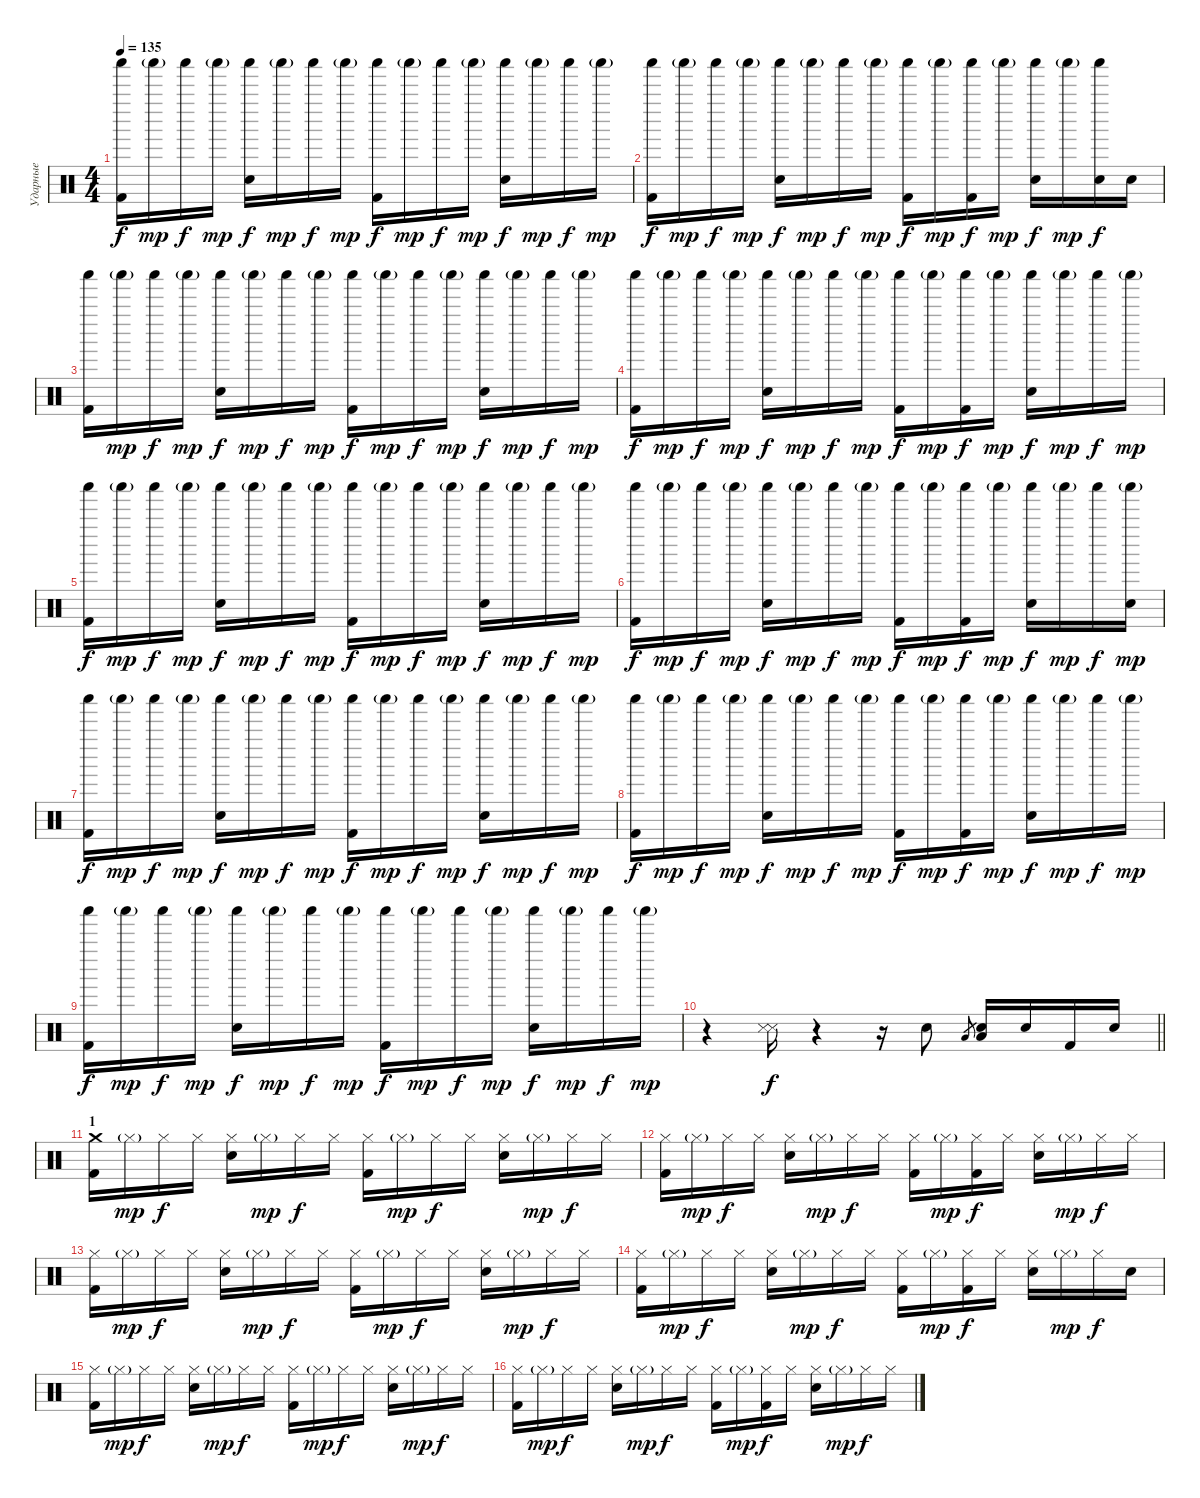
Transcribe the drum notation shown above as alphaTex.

\track ("Ударные" "Ударные") {instrument percussion}
\staff {score}
\articulation defaults
\ts (4 4)
\tempo 135
\clef neutral
\ks c
("Shaker (hit)" "Kick (hit) 2").16{dy f} "Shaker (hit)"{g}.16{dy mp} "Shaker (hit)".16{dy f} "Shaker (hit)"{g}.16{dy mp} ("Shaker (hit)" "Snare (hit) 2").16{dy f} "Shaker (hit)"{g}.16{dy mp} "Shaker (hit)".16{dy f} "Shaker (hit)"{g}.16{dy mp} ("Shaker (hit)" "Kick (hit) 2").16{dy f} "Shaker (hit)"{g}.16{dy mp} "Shaker (hit)".16{dy f} "Shaker (hit)"{g}.16{dy mp} ("Shaker (hit)" "Snare (hit) 2").16{dy f} "Shaker (hit)"{g}.16{dy mp} "Shaker (hit)".16{dy f} "Shaker (hit)"{g}.16{dy mp} |
("Shaker (hit)" "Kick (hit) 2").16{dy f} "Shaker (hit)"{g}.16{dy mp} "Shaker (hit)".16{dy f} "Shaker (hit)"{g}.16{dy mp} ("Shaker (hit)" "Snare (hit) 2").16{dy f} "Shaker (hit)"{g}.16{dy mp} "Shaker (hit)".16{dy f} "Shaker (hit)"{g}.16{dy mp} ("Shaker (hit)" "Kick (hit) 2").16{dy f} "Shaker (hit)"{g}.16{dy mp} ("Shaker (hit)" "Kick (hit) 2").16{dy f} "Shaker (hit)"{g}.16{dy mp} ("Shaker (hit)" "Snare (hit) 2").16{dy f} "Shaker (hit)"{g}.16{dy mp} ("Shaker (hit)" "Snare (hit) 2").16{dy f} "Snare (hit) 2".16 |
("Shaker (hit)" "Kick (hit) 2").16 "Shaker (hit)"{g}.16{dy mp} "Shaker (hit)".16{dy f} "Shaker (hit)"{g}.16{dy mp} ("Shaker (hit)" "Snare (hit) 2").16{dy f} "Shaker (hit)"{g}.16{dy mp} "Shaker (hit)".16{dy f} "Shaker (hit)"{g}.16{dy mp} ("Shaker (hit)" "Kick (hit) 2").16{dy f} "Shaker (hit)"{g}.16{dy mp} "Shaker (hit)".16{dy f} "Shaker (hit)"{g}.16{dy mp} ("Shaker (hit)" "Snare (hit) 2").16{dy f} "Shaker (hit)"{g}.16{dy mp} "Shaker (hit)".16{dy f} "Shaker (hit)"{g}.16{dy mp} |
("Shaker (hit)" "Kick (hit) 2").16{dy f} "Shaker (hit)"{g}.16{dy mp} "Shaker (hit)".16{dy f} "Shaker (hit)"{g}.16{dy mp} ("Shaker (hit)" "Snare (hit) 2").16{dy f} "Shaker (hit)"{g}.16{dy mp} "Shaker (hit)".16{dy f} "Shaker (hit)"{g}.16{dy mp} ("Shaker (hit)" "Kick (hit) 2").16{dy f} "Shaker (hit)"{g}.16{dy mp} ("Shaker (hit)" "Kick (hit) 2").16{dy f} "Shaker (hit)"{g}.16{dy mp} ("Shaker (hit)" "Snare (hit) 2").16{dy f} "Shaker (hit)"{g}.16{dy mp} "Shaker (hit)".16{dy f} "Shaker (hit)"{g}.16{dy mp} |
("Shaker (hit)" "Kick (hit) 2").16{dy f} "Shaker (hit)"{g}.16{dy mp} "Shaker (hit)".16{dy f} "Shaker (hit)"{g}.16{dy mp} ("Shaker (hit)" "Snare (hit) 2").16{dy f} "Shaker (hit)"{g}.16{dy mp} "Shaker (hit)".16{dy f} "Shaker (hit)"{g}.16{dy mp} ("Shaker (hit)" "Kick (hit) 2").16{dy f} "Shaker (hit)"{g}.16{dy mp} "Shaker (hit)".16{dy f} "Shaker (hit)"{g}.16{dy mp} ("Shaker (hit)" "Snare (hit) 2").16{dy f} "Shaker (hit)"{g}.16{dy mp} "Shaker (hit)".16{dy f} "Shaker (hit)"{g}.16{dy mp} |
("Shaker (hit)" "Kick (hit) 2").16{dy f} "Shaker (hit)"{g}.16{dy mp} "Shaker (hit)".16{dy f} "Shaker (hit)"{g}.16{dy mp} ("Shaker (hit)" "Snare (hit) 2").16{dy f} "Shaker (hit)"{g}.16{dy mp} "Shaker (hit)".16{dy f} "Shaker (hit)"{g}.16{dy mp} ("Shaker (hit)" "Kick (hit) 2").16{dy f} "Shaker (hit)"{g}.16{dy mp} ("Shaker (hit)" "Kick (hit) 2").16{dy f} "Shaker (hit)"{g}.16{dy mp} ("Shaker (hit)" "Snare (hit) 2").16{dy f} "Shaker (hit)"{g}.16{dy mp} "Shaker (hit)".16{dy f} ("Shaker (hit)"{g} "Snare (hit) 2").16{dy mp} |
("Shaker (hit)" "Kick (hit) 2").16{dy f} "Shaker (hit)"{g}.16{dy mp} "Shaker (hit)".16{dy f} "Shaker (hit)"{g}.16{dy mp} ("Shaker (hit)" "Snare (hit) 2").16{dy f} "Shaker (hit)"{g}.16{dy mp} "Shaker (hit)".16{dy f} "Shaker (hit)"{g}.16{dy mp} ("Shaker (hit)" "Kick (hit) 2").16{dy f} "Shaker (hit)"{g}.16{dy mp} "Shaker (hit)".16{dy f} "Shaker (hit)"{g}.16{dy mp} ("Shaker (hit)" "Snare (hit) 2").16{dy f} "Shaker (hit)"{g}.16{dy mp} "Shaker (hit)".16{dy f} "Shaker (hit)"{g}.16{dy mp} |
("Shaker (hit)" "Kick (hit) 2").16{dy f} "Shaker (hit)"{g}.16{dy mp} "Shaker (hit)".16{dy f} "Shaker (hit)"{g}.16{dy mp} ("Shaker (hit)" "Snare (hit) 2").16{dy f} "Shaker (hit)"{g}.16{dy mp} "Shaker (hit)".16{dy f} "Shaker (hit)"{g}.16{dy mp} ("Shaker (hit)" "Kick (hit) 2").16{dy f} "Shaker (hit)"{g}.16{dy mp} ("Shaker (hit)" "Kick (hit) 2").16{dy f} "Shaker (hit)"{g}.16{dy mp} ("Shaker (hit)" "Snare (hit) 2").16{dy f} "Shaker (hit)"{g}.16{dy mp} "Shaker (hit)".16{dy f} "Shaker (hit)"{g}.16{dy mp} |
("Shaker (hit)" "Kick (hit) 2").16{dy f} "Shaker (hit)"{g}.16{dy mp} "Shaker (hit)".16{dy f} "Shaker (hit)"{g}.16{dy mp} ("Shaker (hit)" "Snare (hit) 2").16{dy f} "Shaker (hit)"{g}.16{dy mp} "Shaker (hit)".16{dy f} "Shaker (hit)"{g}.16{dy mp} ("Shaker (hit)" "Kick (hit) 2").16{dy f} "Shaker (hit)"{g}.16{dy mp} "Shaker (hit)".16{dy f} "Shaker (hit)"{g}.16{dy mp} ("Shaker (hit)" "Snare (hit) 2").16{dy f} "Shaker (hit)"{g}.16{dy mp} "Shaker (hit)".16{dy f} "Shaker (hit)"{g}.16{dy mp} |
\barLineRight lightlight
r.4 ("Snare (side stick) 3" "Snare (side stick) 3").16{dy f} r.4 r.16 "Snare (hit) 2".8 "Low Floor Tom (hit)".8{gr} ("Low Floor Tom (hit)" "Snare (hit) 2").16 "Snare (hit) 2".16 "Kick (hit) 2".16 "Snare (hit) 2".16 |
\section ("" "1")
("Crash medium (hit)" "Kick (hit) 2").16 "Hi-Hat (closed)"{g}.16{dy mp} "Hi-Hat (closed)".16{dy f} "Hi-Hat (closed)".16 ("Hi-Hat (closed)" "Snare (hit) 2").16 "Hi-Hat (closed)"{g}.16{dy mp} "Hi-Hat (closed)".16{dy f} "Hi-Hat (closed)".16 ("Hi-Hat (closed)" "Kick (hit) 2").16 "Hi-Hat (closed)"{g}.16{dy mp} "Hi-Hat (closed)".16{dy f} "Hi-Hat (closed)".16 ("Hi-Hat (closed)" "Snare (hit) 2").16 "Hi-Hat (closed)"{g}.16{dy mp} "Hi-Hat (closed)".16{dy f} "Hi-Hat (closed)".16 |
("Hi-Hat (closed)" "Kick (hit) 2").16 "Hi-Hat (closed)"{g}.16{dy mp} "Hi-Hat (closed)".16{dy f} "Hi-Hat (closed)".16 ("Hi-Hat (closed)" "Snare (hit) 2").16 "Hi-Hat (closed)"{g}.16{dy mp} "Hi-Hat (closed)".16{dy f} "Hi-Hat (closed)".16 ("Hi-Hat (closed)" "Kick (hit) 2").16 "Hi-Hat (closed)"{g}.16{dy mp} ("Hi-Hat (closed)" "Kick (hit) 2").16{dy f} "Hi-Hat (closed)".16 ("Hi-Hat (closed)" "Snare (hit) 2").16 "Hi-Hat (closed)"{g}.16{dy mp} "Hi-Hat (closed)".16{dy f} "Hi-Hat (closed)".16 |
("Hi-Hat (closed)" "Kick (hit) 2").16 "Hi-Hat (closed)"{g}.16{dy mp} "Hi-Hat (closed)".16{dy f} "Hi-Hat (closed)".16 ("Hi-Hat (closed)" "Snare (hit) 2").16 "Hi-Hat (closed)"{g}.16{dy mp} "Hi-Hat (closed)".16{dy f} "Hi-Hat (closed)".16 ("Hi-Hat (closed)" "Kick (hit) 2").16 "Hi-Hat (closed)"{g}.16{dy mp} "Hi-Hat (closed)".16{dy f} "Hi-Hat (closed)".16 ("Hi-Hat (closed)" "Snare (hit) 2").16 "Hi-Hat (closed)"{g}.16{dy mp} "Hi-Hat (closed)".16{dy f} "Hi-Hat (closed)".16 |
("Hi-Hat (closed)" "Kick (hit) 2").16 "Hi-Hat (closed)"{g}.16{dy mp} "Hi-Hat (closed)".16{dy f} "Hi-Hat (closed)".16 ("Hi-Hat (closed)" "Snare (hit) 2").16 "Hi-Hat (closed)"{g}.16{dy mp} "Hi-Hat (closed)".16{dy f} "Hi-Hat (closed)".16 ("Hi-Hat (closed)" "Kick (hit) 2").16 "Hi-Hat (closed)"{g}.16{dy mp} ("Hi-Hat (closed)" "Kick (hit) 2").16{dy f} "Hi-Hat (closed)".16 ("Hi-Hat (closed)" "Snare (hit) 2").16 "Hi-Hat (closed)"{g}.16{dy mp} "Hi-Hat (closed)".16{dy f} "Snare (hit) 2".16 |
("Hi-Hat (closed)" "Kick (hit) 2").16 "Hi-Hat (closed)"{g}.16{dy mp} "Hi-Hat (closed)".16{dy f} "Hi-Hat (closed)".16 ("Hi-Hat (closed)" "Snare (hit) 2").16 "Hi-Hat (closed)"{g}.16{dy mp} "Hi-Hat (closed)".16{dy f} "Hi-Hat (closed)".16 ("Hi-Hat (closed)" "Kick (hit) 2").16 "Hi-Hat (closed)"{g}.16{dy mp} "Hi-Hat (closed)".16{dy f} "Hi-Hat (closed)".16 ("Hi-Hat (closed)" "Snare (hit) 2").16 "Hi-Hat (closed)"{g}.16{dy mp} "Hi-Hat (closed)".16{dy f} "Hi-Hat (closed)".16 |
("Hi-Hat (closed)" "Kick (hit) 2").16 "Hi-Hat (closed)"{g}.16{dy mp} "Hi-Hat (closed)".16{dy f} "Hi-Hat (closed)".16 ("Hi-Hat (closed)" "Snare (hit) 2").16 "Hi-Hat (closed)"{g}.16{dy mp} "Hi-Hat (closed)".16{dy f} "Hi-Hat (closed)".16 ("Hi-Hat (closed)" "Kick (hit) 2").16 "Hi-Hat (closed)"{g}.16{dy mp} ("Hi-Hat (closed)" "Kick (hit) 2").16{dy f} "Hi-Hat (closed)".16 ("Hi-Hat (closed)" "Snare (hit) 2").16 "Hi-Hat (closed)"{g}.16{dy mp} "Hi-Hat (closed)".16{dy f} "Hi-Hat (closed)".16
